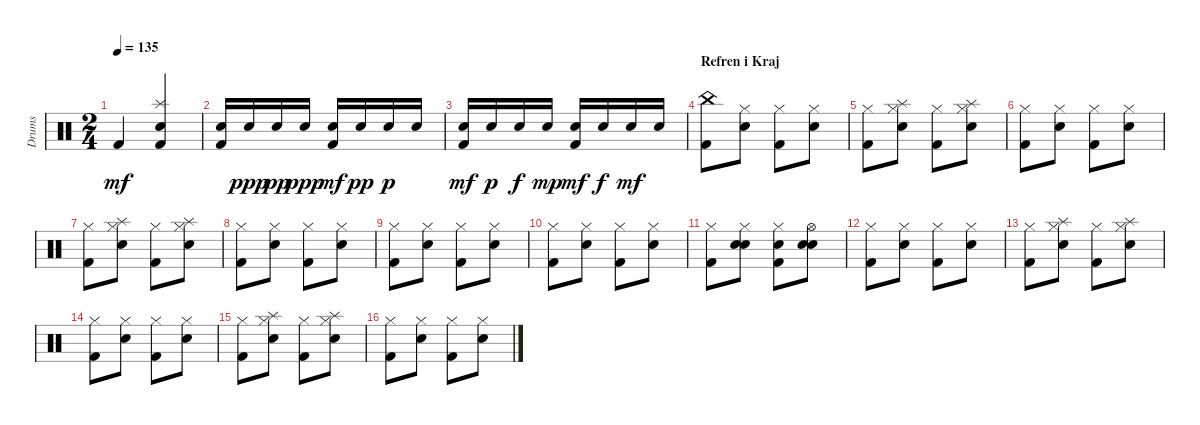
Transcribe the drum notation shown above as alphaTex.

\track ("Drums" "Drums") {instrument percussion}
\staff {score}
\articulation defaults
\ts (2 4)
\tempo 135
\clef neutral
\ks c "Kick (hit) 2".4{dy mf}
("Splash (hit)" "Electric Snare (hit)" "Kick (hit) 2").4 |
("Electric Snare (hit)" "Kick (hit) 2").16 "Electric Snare (hit)".16{dy ppp} "Electric Snare (hit)".16{dy pp} "Electric Snare (hit)".16{dy ppp} ("Electric Snare (hit)" "Kick (hit) 2").16{dy mf} "Electric Snare (hit)".16{dy pp} "Electric Snare (hit)".16{dy p} "Electric Snare (hit)".16 |
("Electric Snare (hit)" "Kick (hit) 2").16{dy mf} "Electric Snare (hit)".16{dy p} "Electric Snare (hit)".16{dy f} "Electric Snare (hit)".16{dy mp} ("Electric Snare (hit)" "Kick (hit) 2").16{dy mf} "Electric Snare (hit)".16{dy f} "Electric Snare (hit)".16{dy mf} "Electric Snare (hit)".16 |
\section ("" "Refren i Kraj")
("China (hit)" "Kick (hit) 2").8 ("Hi-Hat (closed)" "Electric Snare (hit)").8 ("Hi-Hat (closed)" "Kick (hit) 2").8 ("Hi-Hat (closed)" "Electric Snare (hit)").8 |
("Hi-Hat (closed)" "Kick (hit) 2").8 ("Splash (hit)" "Hi-Hat (closed)" "Electric Snare (hit)").8 ("Hi-Hat (closed)" "Kick (hit) 2").8 ("Splash (hit)" "Hi-Hat (closed)" "Electric Snare (hit)").8 |
("Hi-Hat (closed)" "Kick (hit) 2").8 ("Hi-Hat (closed)" "Electric Snare (hit)").8 ("Hi-Hat (closed)" "Kick (hit) 2").8 ("Hi-Hat (closed)" "Electric Snare (hit)").8 |
("Hi-Hat (closed)" "Kick (hit) 2").8 ("Splash (hit)" "Hi-Hat (closed)" "Electric Snare (hit)").8 ("Hi-Hat (closed)" "Kick (hit) 2").8 ("Splash (hit)" "Hi-Hat (closed)" "Electric Snare (hit)").8 |
("Hi-Hat (closed)" "Kick (hit) 2").8 ("Hi-Hat (closed)" "Electric Snare (hit)").8 ("Hi-Hat (closed)" "Kick (hit) 2").8 ("Hi-Hat (closed)" "Electric Snare (hit)").8 |
("Hi-Hat (closed)" "Kick (hit) 2").8 ("Hi-Hat (closed)" "Electric Snare (hit)").8 ("Hi-Hat (closed)" "Kick (hit) 2").8 ("Hi-Hat (closed)" "Electric Snare (hit)").8 |
("Hi-Hat (closed)" "Kick (hit) 2").8 ("Hi-Hat (closed)" "Electric Snare (hit)").8 ("Hi-Hat (closed)" "Kick (hit) 2").8 ("Hi-Hat (closed)" "Electric Snare (hit)").8 |
("Hi-Hat (closed)" "Kick (hit) 2").8 ("Hi-Hat (closed)" "Electric Snare (hit)" "Hand Clap (hit)").8 ("Hi-Hat (closed)" "Hand Clap (hit)" "Kick (hit) 2").8 ("Hi-Hat (open)" "Electric Snare (hit)" "Hand Clap (hit)").8 |
("Hi-Hat (closed)" "Kick (hit) 2").8 ("Hi-Hat (closed)" "Electric Snare (hit)").8 ("Hi-Hat (closed)" "Kick (hit) 2").8 ("Hi-Hat (closed)" "Electric Snare (hit)").8 |
("Hi-Hat (closed)" "Kick (hit) 2").8 ("Splash (hit)" "Hi-Hat (closed)" "Electric Snare (hit)").8 ("Hi-Hat (closed)" "Kick (hit) 2").8 ("Splash (hit)" "Hi-Hat (closed)" "Electric Snare (hit)").8 |
("Hi-Hat (closed)" "Kick (hit) 2").8 ("Hi-Hat (closed)" "Electric Snare (hit)").8 ("Hi-Hat (closed)" "Kick (hit) 2").8 ("Hi-Hat (closed)" "Electric Snare (hit)").8 |
("Hi-Hat (closed)" "Kick (hit) 2").8 ("Splash (hit)" "Hi-Hat (closed)" "Electric Snare (hit)").8 ("Hi-Hat (closed)" "Kick (hit) 2").8 ("Splash (hit)" "Hi-Hat (closed)" "Electric Snare (hit)").8 |
("Hi-Hat (closed)" "Kick (hit) 2").8 ("Hi-Hat (closed)" "Electric Snare (hit)").8 ("Hi-Hat (closed)" "Kick (hit) 2").8 ("Hi-Hat (closed)" "Electric Snare (hit)").8
